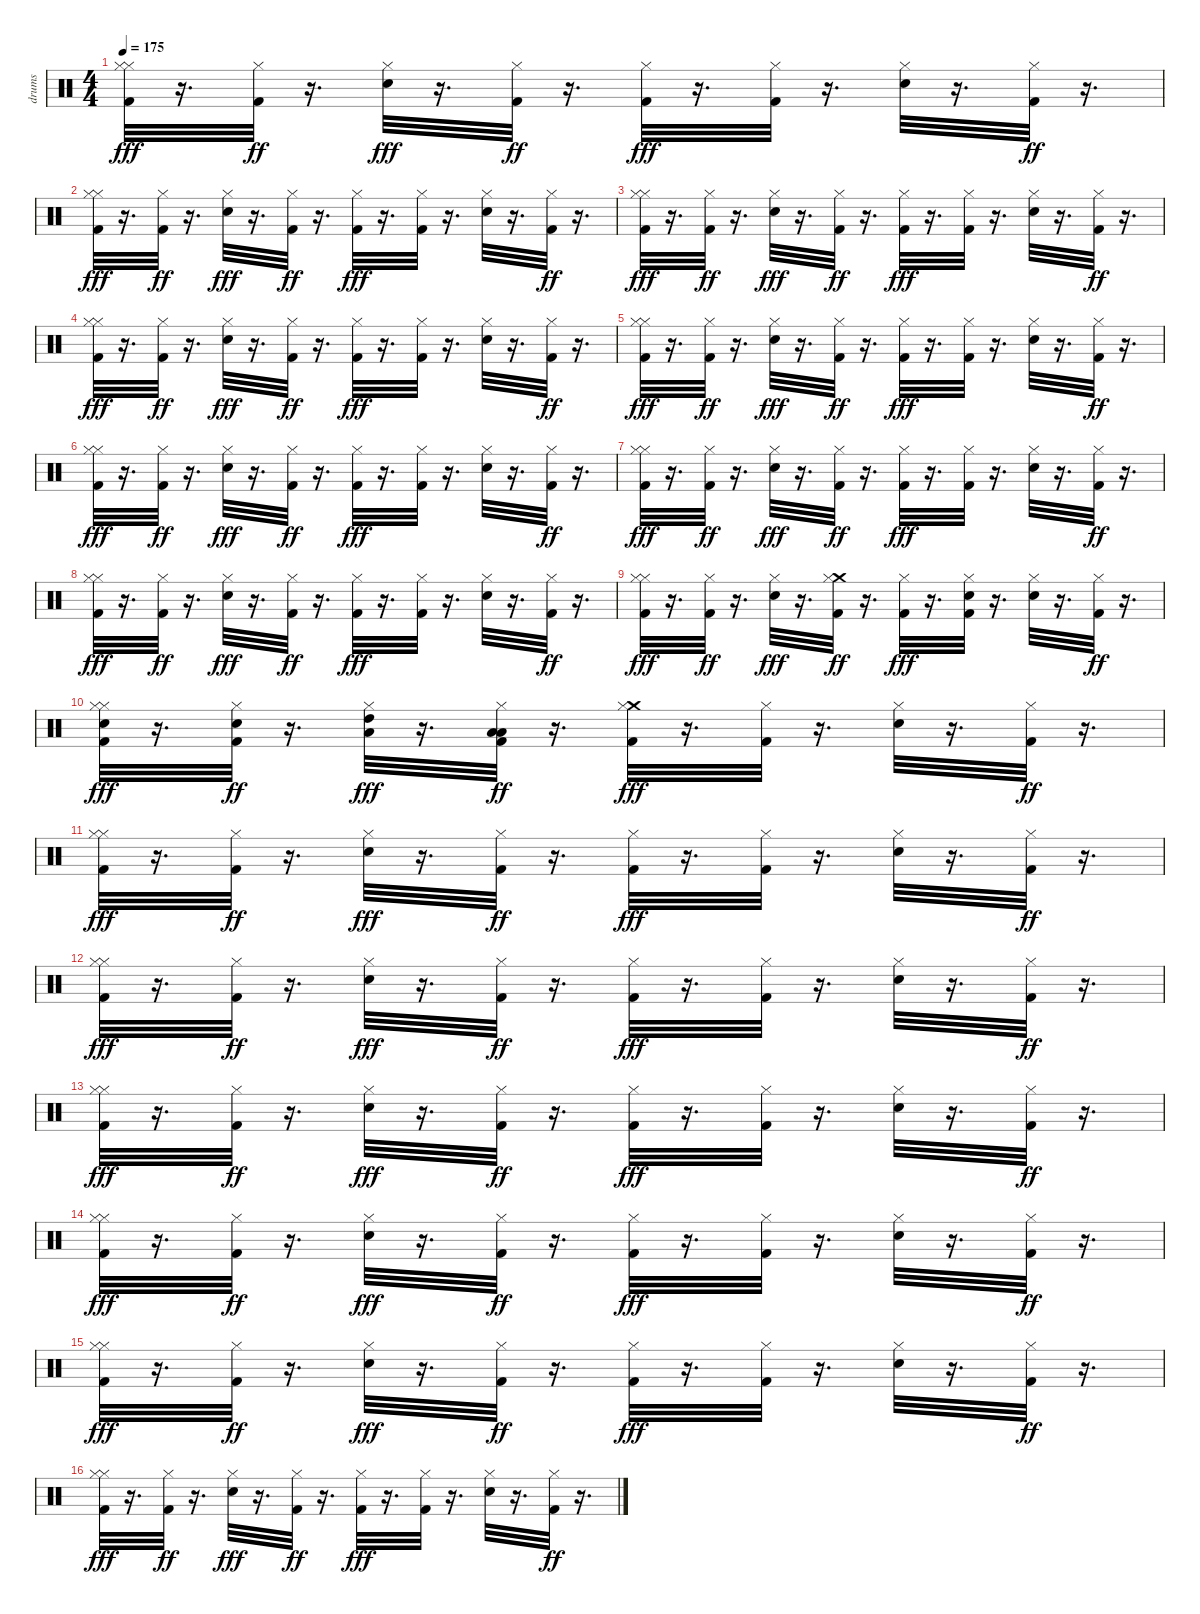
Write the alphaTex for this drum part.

\track ("drums" "drums") {instrument percussion}
\staff {score}
\articulation defaults
\ts (4 4)
\tempo 175
\clef neutral
\ks c
("Hi-Hat (closed)" "Hi-Hat (closed)" "Kick (hit) 2").32{dy fff} r.16{d} ("Hi-Hat (closed)" "Kick (hit) 2").32{dy ff} r.16{d} ("Hi-Hat (closed)" "Electric Snare (hit)").32{dy fff} r.16{d} ("Hi-Hat (closed)" "Kick (hit) 2").32{dy ff} r.16{d} ("Hi-Hat (closed)" "Kick (hit) 2").32{dy fff} r.16{d} ("Hi-Hat (closed)" "Kick (hit) 2").32 r.16{d} ("Hi-Hat (closed)" "Electric Snare (hit)").32 r.16{d} ("Hi-Hat (closed)" "Kick (hit) 2").32{dy ff} r.16{d} |
("Hi-Hat (closed)" "Hi-Hat (closed)" "Kick (hit) 2").32{dy fff} r.16{d} ("Hi-Hat (closed)" "Kick (hit) 2").32{dy ff} r.16{d} ("Hi-Hat (closed)" "Electric Snare (hit)").32{dy fff} r.16{d} ("Hi-Hat (closed)" "Kick (hit) 2").32{dy ff} r.16{d} ("Hi-Hat (closed)" "Kick (hit) 2").32{dy fff} r.16{d} ("Hi-Hat (closed)" "Kick (hit) 2").32 r.16{d} ("Hi-Hat (closed)" "Electric Snare (hit)").32 r.16{d} ("Hi-Hat (closed)" "Kick (hit) 2").32{dy ff} r.16{d} |
("Hi-Hat (closed)" "Hi-Hat (closed)" "Kick (hit) 2").32{dy fff} r.16{d} ("Hi-Hat (closed)" "Kick (hit) 2").32{dy ff} r.16{d} ("Hi-Hat (closed)" "Electric Snare (hit)").32{dy fff} r.16{d} ("Hi-Hat (closed)" "Kick (hit) 2").32{dy ff} r.16{d} ("Hi-Hat (closed)" "Kick (hit) 2").32{dy fff} r.16{d} ("Hi-Hat (closed)" "Kick (hit) 2").32 r.16{d} ("Hi-Hat (closed)" "Electric Snare (hit)").32 r.16{d} ("Hi-Hat (closed)" "Kick (hit) 2").32{dy ff} r.16{d} |
("Hi-Hat (closed)" "Hi-Hat (closed)" "Kick (hit) 2").32{dy fff} r.16{d} ("Hi-Hat (closed)" "Kick (hit) 2").32{dy ff} r.16{d} ("Hi-Hat (closed)" "Electric Snare (hit)").32{dy fff} r.16{d} ("Hi-Hat (closed)" "Kick (hit) 2").32{dy ff} r.16{d} ("Hi-Hat (closed)" "Kick (hit) 2").32{dy fff} r.16{d} ("Hi-Hat (closed)" "Kick (hit) 2").32 r.16{d} ("Hi-Hat (closed)" "Electric Snare (hit)").32 r.16{d} ("Hi-Hat (closed)" "Kick (hit) 2").32{dy ff} r.16{d} |
("Hi-Hat (closed)" "Hi-Hat (closed)" "Kick (hit) 2").32{dy fff} r.16{d} ("Hi-Hat (closed)" "Kick (hit) 2").32{dy ff} r.16{d} ("Hi-Hat (closed)" "Electric Snare (hit)").32{dy fff} r.16{d} ("Hi-Hat (closed)" "Kick (hit) 2").32{dy ff} r.16{d} ("Hi-Hat (closed)" "Kick (hit) 2").32{dy fff} r.16{d} ("Hi-Hat (closed)" "Kick (hit) 2").32 r.16{d} ("Hi-Hat (closed)" "Electric Snare (hit)").32 r.16{d} ("Hi-Hat (closed)" "Kick (hit) 2").32{dy ff} r.16{d} |
("Hi-Hat (closed)" "Hi-Hat (closed)" "Kick (hit) 2").32{dy fff} r.16{d} ("Hi-Hat (closed)" "Kick (hit) 2").32{dy ff} r.16{d} ("Hi-Hat (closed)" "Electric Snare (hit)").32{dy fff} r.16{d} ("Hi-Hat (closed)" "Kick (hit) 2").32{dy ff} r.16{d} ("Hi-Hat (closed)" "Kick (hit) 2").32{dy fff} r.16{d} ("Hi-Hat (closed)" "Kick (hit) 2").32 r.16{d} ("Hi-Hat (closed)" "Electric Snare (hit)").32 r.16{d} ("Hi-Hat (closed)" "Kick (hit) 2").32{dy ff} r.16{d} |
("Hi-Hat (closed)" "Hi-Hat (closed)" "Kick (hit) 2").32{dy fff} r.16{d} ("Hi-Hat (closed)" "Kick (hit) 2").32{dy ff} r.16{d} ("Hi-Hat (closed)" "Electric Snare (hit)").32{dy fff} r.16{d} ("Hi-Hat (closed)" "Kick (hit) 2").32{dy ff} r.16{d} ("Hi-Hat (closed)" "Kick (hit) 2").32{dy fff} r.16{d} ("Hi-Hat (closed)" "Kick (hit) 2").32 r.16{d} ("Hi-Hat (closed)" "Electric Snare (hit)").32 r.16{d} ("Hi-Hat (closed)" "Kick (hit) 2").32{dy ff} r.16{d} |
("Hi-Hat (closed)" "Hi-Hat (closed)" "Kick (hit) 2").32{dy fff} r.16{d} ("Hi-Hat (closed)" "Kick (hit) 2").32{dy ff} r.16{d} ("Hi-Hat (closed)" "Electric Snare (hit)").32{dy fff} r.16{d} ("Hi-Hat (closed)" "Kick (hit) 2").32{dy ff} r.16{d} ("Hi-Hat (closed)" "Kick (hit) 2").32{dy fff} r.16{d} ("Hi-Hat (closed)" "Kick (hit) 2").32 r.16{d} ("Hi-Hat (closed)" "Electric Snare (hit)").32 r.16{d} ("Hi-Hat (closed)" "Kick (hit) 2").32{dy ff} r.16{d} |
("Hi-Hat (closed)" "Hi-Hat (closed)" "Kick (hit) 2").32{dy fff} r.16{d} ("Hi-Hat (closed)" "Kick (hit) 2").32{dy ff} r.16{d} ("Hi-Hat (closed)" "Electric Snare (hit)").32{dy fff} r.16{d} ("Crash medium (hit)" "Hi-Hat (closed)" "Kick (hit) 2").32{dy ff} r.16{d} ("Hi-Hat (closed)" "Kick (hit) 2").32{dy fff} r.16{d} ("Hi-Hat (closed)" "Electric Snare (hit)" "Kick (hit) 2").32 r.16{d} ("Hi-Hat (closed)" "Electric Snare (hit)").32 r.16{d} ("Hi-Hat (closed)" "Kick (hit) 2").32{dy ff} r.16{d} |
("Hi-Hat (closed)" "Hi-Hat (closed)" "Electric Snare (hit)" "Kick (hit) 2").32{dy fff} r.16{d} ("Hi-Hat (closed)" "Electric Snare (hit)" "Kick (hit) 2").32{dy ff} r.16{d} ("Hi-Hat (closed)" "Low Tom (hit)" "High Tom (hit)").32{dy fff} r.16{d} ("Hi-Hat (closed)" "Low Floor Tom (hit)" "Low Tom (hit)" "Kick (hit) 2").32{dy ff} r.16{d} ("Crash medium (hit)" "Hi-Hat (closed)" "Kick (hit) 2").32{dy fff} r.16{d} ("Hi-Hat (closed)" "Kick (hit) 2").32 r.16{d} ("Hi-Hat (closed)" "Electric Snare (hit)").32 r.16{d} ("Hi-Hat (closed)" "Kick (hit) 2").32{dy ff} r.16{d} |
("Hi-Hat (closed)" "Hi-Hat (closed)" "Kick (hit) 2").32{dy fff} r.16{d} ("Hi-Hat (closed)" "Kick (hit) 2").32{dy ff} r.16{d} ("Hi-Hat (closed)" "Electric Snare (hit)").32{dy fff} r.16{d} ("Hi-Hat (closed)" "Kick (hit) 2").32{dy ff} r.16{d} ("Hi-Hat (closed)" "Kick (hit) 2").32{dy fff} r.16{d} ("Hi-Hat (closed)" "Kick (hit) 2").32 r.16{d} ("Hi-Hat (closed)" "Electric Snare (hit)").32 r.16{d} ("Hi-Hat (closed)" "Kick (hit) 2").32{dy ff} r.16{d} |
("Hi-Hat (closed)" "Hi-Hat (closed)" "Kick (hit) 2").32{dy fff} r.16{d} ("Hi-Hat (closed)" "Kick (hit) 2").32{dy ff} r.16{d} ("Hi-Hat (closed)" "Electric Snare (hit)").32{dy fff} r.16{d} ("Hi-Hat (closed)" "Kick (hit) 2").32{dy ff} r.16{d} ("Hi-Hat (closed)" "Kick (hit) 2").32{dy fff} r.16{d} ("Hi-Hat (closed)" "Kick (hit) 2").32 r.16{d} ("Hi-Hat (closed)" "Electric Snare (hit)").32 r.16{d} ("Hi-Hat (closed)" "Kick (hit) 2").32{dy ff} r.16{d} |
("Hi-Hat (closed)" "Hi-Hat (closed)" "Kick (hit) 2").32{dy fff} r.16{d} ("Hi-Hat (closed)" "Kick (hit) 2").32{dy ff} r.16{d} ("Hi-Hat (closed)" "Electric Snare (hit)").32{dy fff} r.16{d} ("Hi-Hat (closed)" "Kick (hit) 2").32{dy ff} r.16{d} ("Hi-Hat (closed)" "Kick (hit) 2").32{dy fff} r.16{d} ("Hi-Hat (closed)" "Kick (hit) 2").32 r.16{d} ("Hi-Hat (closed)" "Electric Snare (hit)").32 r.16{d} ("Hi-Hat (closed)" "Kick (hit) 2").32{dy ff} r.16{d} |
("Hi-Hat (closed)" "Hi-Hat (closed)" "Kick (hit) 2").32{dy fff} r.16{d} ("Hi-Hat (closed)" "Kick (hit) 2").32{dy ff} r.16{d} ("Hi-Hat (closed)" "Electric Snare (hit)").32{dy fff} r.16{d} ("Hi-Hat (closed)" "Kick (hit) 2").32{dy ff} r.16{d} ("Hi-Hat (closed)" "Kick (hit) 2").32{dy fff} r.16{d} ("Hi-Hat (closed)" "Kick (hit) 2").32 r.16{d} ("Hi-Hat (closed)" "Electric Snare (hit)").32 r.16{d} ("Hi-Hat (closed)" "Kick (hit) 2").32{dy ff} r.16{d} |
("Hi-Hat (closed)" "Hi-Hat (closed)" "Kick (hit) 2").32{dy fff} r.16{d} ("Hi-Hat (closed)" "Kick (hit) 2").32{dy ff} r.16{d} ("Hi-Hat (closed)" "Electric Snare (hit)").32{dy fff} r.16{d} ("Hi-Hat (closed)" "Kick (hit) 2").32{dy ff} r.16{d} ("Hi-Hat (closed)" "Kick (hit) 2").32{dy fff} r.16{d} ("Hi-Hat (closed)" "Kick (hit) 2").32 r.16{d} ("Hi-Hat (closed)" "Electric Snare (hit)").32 r.16{d} ("Hi-Hat (closed)" "Kick (hit) 2").32{dy ff} r.16{d} |
("Hi-Hat (closed)" "Hi-Hat (closed)" "Kick (hit) 2").32{dy fff} r.16{d} ("Hi-Hat (closed)" "Kick (hit) 2").32{dy ff} r.16{d} ("Hi-Hat (closed)" "Electric Snare (hit)").32{dy fff} r.16{d} ("Hi-Hat (closed)" "Kick (hit) 2").32{dy ff} r.16{d} ("Hi-Hat (closed)" "Kick (hit) 2").32{dy fff} r.16{d} ("Hi-Hat (closed)" "Kick (hit) 2").32 r.16{d} ("Hi-Hat (closed)" "Electric Snare (hit)").32 r.16{d} ("Hi-Hat (closed)" "Kick (hit) 2").32{dy ff} r.16{d}
